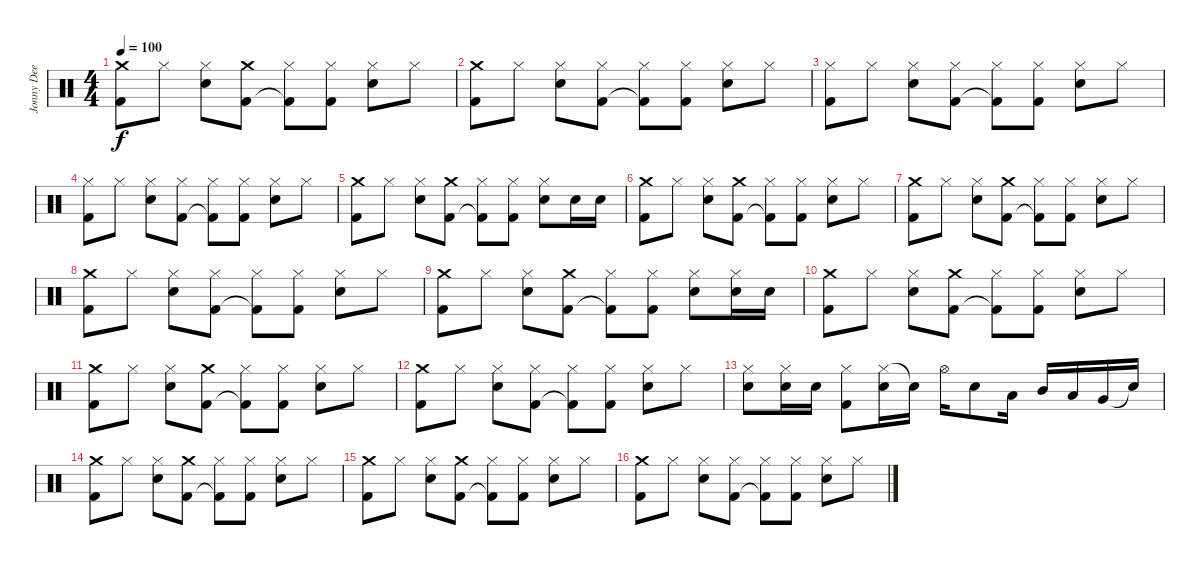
\track ("Jonny Dee" "Jonny Dee") {instrument percussion}
\staff {score}
\articulation defaults
\ts (4 4)
\tempo 100
\clef neutral
\ks c
("Crash medium (hit)" "Kick (hit) 2").8{dy f} "Hi-Hat (closed)".8 ("Hi-Hat (closed)" "Snare (hit) 2").8 ("Crash medium (hit)" "Kick (hit) 2").8 ("Hi-Hat (closed)" "Kick (hit) 2"{t}).8 ("Hi-Hat (closed)" "Kick (hit) 2").8 ("Hi-Hat (closed)" "Snare (hit) 2").8 "Hi-Hat (closed)".8 |
("Crash medium (hit)" "Kick (hit) 2").8 "Hi-Hat (closed)".8 ("Hi-Hat (closed)" "Snare (hit) 2").8 ("Hi-Hat (closed)" "Kick (hit) 2").8 ("Hi-Hat (closed)" "Kick (hit) 2"{t}).8 ("Hi-Hat (closed)" "Kick (hit) 2").8 ("Hi-Hat (closed)" "Snare (hit) 2").8 "Hi-Hat (closed)".8 |
("Hi-Hat (closed)" "Kick (hit) 2").8 "Hi-Hat (closed)".8 ("Hi-Hat (closed)" "Snare (hit) 2").8 ("Hi-Hat (closed)" "Kick (hit) 2").8 ("Hi-Hat (closed)" "Kick (hit) 2"{t}).8 ("Hi-Hat (closed)" "Kick (hit) 2").8 ("Hi-Hat (closed)" "Snare (hit) 2").8 "Hi-Hat (closed)".8 |
("Hi-Hat (closed)" "Kick (hit) 2").8 "Hi-Hat (closed)".8 ("Hi-Hat (closed)" "Snare (hit) 2").8 ("Hi-Hat (closed)" "Kick (hit) 2").8 ("Hi-Hat (closed)" "Kick (hit) 2"{t}).8 ("Hi-Hat (closed)" "Kick (hit) 2").8 ("Hi-Hat (closed)" "Snare (hit) 2").8 "Hi-Hat (closed)".8 |
("Crash medium (hit)" "Kick (hit) 2").8 "Hi-Hat (closed)".8 ("Hi-Hat (closed)" "Snare (hit) 2").8 ("Crash medium (hit)" "Kick (hit) 2").8 ("Hi-Hat (closed)" "Kick (hit) 2"{t}).8 ("Hi-Hat (closed)" "Kick (hit) 2").8 ("Hi-Hat (closed)" "Snare (hit) 2").8 "Snare (hit) 2".16 "Snare (hit) 2".16 |
("Crash medium (hit)" "Kick (hit) 2").8 "Hi-Hat (closed)".8 ("Hi-Hat (closed)" "Snare (hit) 2").8 ("Crash medium (hit)" "Kick (hit) 2").8 ("Hi-Hat (closed)" "Kick (hit) 2"{t}).8 ("Hi-Hat (closed)" "Kick (hit) 2").8 ("Hi-Hat (closed)" "Snare (hit) 2").8 "Hi-Hat (closed)".8 |
("Crash medium (hit)" "Kick (hit) 2").8 "Hi-Hat (closed)".8 ("Hi-Hat (closed)" "Snare (hit) 2").8 ("Crash medium (hit)" "Kick (hit) 2").8 ("Hi-Hat (closed)" "Kick (hit) 2"{t}).8 ("Hi-Hat (closed)" "Kick (hit) 2").8 ("Hi-Hat (closed)" "Snare (hit) 2").8 "Hi-Hat (closed)".8 |
("Crash medium (hit)" "Kick (hit) 2").8 "Hi-Hat (closed)".8 ("Hi-Hat (closed)" "Snare (hit) 2").8 ("Hi-Hat (closed)" "Kick (hit) 2").8 ("Hi-Hat (closed)" "Kick (hit) 2"{t}).8 ("Hi-Hat (closed)" "Kick (hit) 2").8 ("Hi-Hat (closed)" "Snare (hit) 2").8 "Hi-Hat (closed)".8 |
("Crash medium (hit)" "Kick (hit) 2").8 "Hi-Hat (closed)".8 ("Hi-Hat (closed)" "Snare (hit) 2").8 ("Crash medium (hit)" "Kick (hit) 2").8 ("Hi-Hat (closed)" "Kick (hit) 2"{t}).8 ("Hi-Hat (closed)" "Kick (hit) 2").8 ("Hi-Hat (closed)" "Snare (hit) 2").8 ("Hi-Hat (closed)" "Snare (hit) 2").16 "Snare (hit) 2".16 |
("Crash medium (hit)" "Kick (hit) 2").8 "Hi-Hat (closed)".8 ("Hi-Hat (closed)" "Snare (hit) 2").8 ("Crash medium (hit)" "Kick (hit) 2").8 ("Hi-Hat (closed)" "Kick (hit) 2"{t}).8 ("Hi-Hat (closed)" "Kick (hit) 2").8 ("Hi-Hat (closed)" "Snare (hit) 2").8 "Hi-Hat (closed)".8 |
("Crash medium (hit)" "Kick (hit) 2").8 "Hi-Hat (closed)".8 ("Hi-Hat (closed)" "Snare (hit) 2").8 ("Crash medium (hit)" "Kick (hit) 2").8 ("Hi-Hat (closed)" "Kick (hit) 2"{t}).8 ("Hi-Hat (closed)" "Kick (hit) 2").8 ("Hi-Hat (closed)" "Snare (hit) 2").8 "Hi-Hat (closed)".8 |
("Crash medium (hit)" "Kick (hit) 2").8 "Hi-Hat (closed)".8 ("Hi-Hat (closed)" "Snare (hit) 2").8 ("Hi-Hat (closed)" "Kick (hit) 2").8 ("Hi-Hat (closed)" "Kick (hit) 2"{t}).8 ("Hi-Hat (closed)" "Kick (hit) 2").8 ("Hi-Hat (closed)" "Snare (hit) 2").8 "Hi-Hat (closed)".8 |
("Hi-Hat (closed)" "Snare (hit) 2").8 ("Hi-Hat (closed)" "Snare (hit) 2").16 "Snare (hit) 2".16 ("Hi-Hat (closed)" "Kick (hit) 2").8 ("Hi-Hat (closed)" "Snare (hit) 2").16 "Snare (hit)"{t}.16 "Hi-Hat (open)".16 "Snare (hit) 2".8 "Low Tom (hit)".16 "Mid Tom (hit)".16 "Low Tom (hit)".16 "Very Low Tom (hit)".16 "Snare (hit)"{t}.16 |
("Crash medium (hit)" "Kick (hit) 2").8 "Hi-Hat (closed)".8 ("Hi-Hat (closed)" "Snare (hit) 2").8 ("Crash medium (hit)" "Kick (hit) 2").8 ("Hi-Hat (closed)" "Kick (hit) 2"{t}).8 ("Hi-Hat (closed)" "Kick (hit) 2").8 ("Hi-Hat (closed)" "Snare (hit) 2").8 "Hi-Hat (closed)".8 |
("Crash medium (hit)" "Kick (hit) 2").8 "Hi-Hat (closed)".8 ("Hi-Hat (closed)" "Snare (hit) 2").8 ("Crash medium (hit)" "Kick (hit) 2").8 ("Hi-Hat (closed)" "Kick (hit) 2"{t}).8 ("Hi-Hat (closed)" "Kick (hit) 2").8 ("Hi-Hat (closed)" "Snare (hit) 2").8 "Hi-Hat (closed)".8 |
("Crash medium (hit)" "Kick (hit) 2").8 "Hi-Hat (closed)".8 ("Hi-Hat (closed)" "Snare (hit) 2").8 ("Hi-Hat (closed)" "Kick (hit) 2").8 ("Hi-Hat (closed)" "Kick (hit) 2"{t}).8 ("Hi-Hat (closed)" "Kick (hit) 2").8 ("Hi-Hat (closed)" "Snare (hit) 2").8 "Hi-Hat (closed)".8
